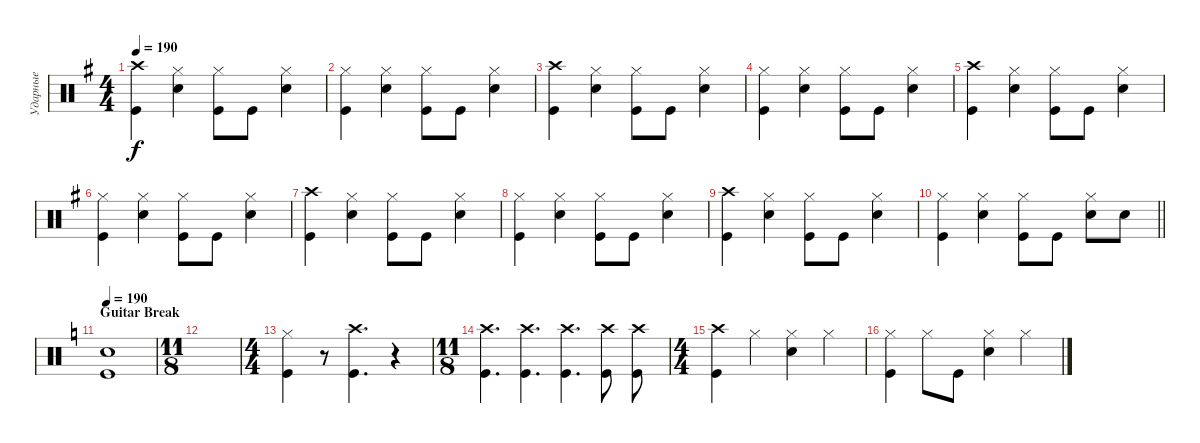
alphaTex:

\track ("Ударные" "Ударные") {instrument percussion}
\staff {score}
\articulation defaults
\ts (4 4)
\tempo 190
\clef neutral
\ks eminor
("Kick (hit)" "Crash high (hit)").4{dy f} ("Hi-Hat (closed)" "Snare (hit) 2").4 ("Kick (hit)" "Hi-Hat (closed)").8 "Kick (hit)".8 ("Snare (hit) 2" "Hi-Hat (closed)").4 |
("Kick (hit)" "Hi-Hat (closed)").4 ("Snare (hit) 2" "Hi-Hat (closed)").4 ("Kick (hit)" "Hi-Hat (closed)").8 "Kick (hit)".8 ("Snare (hit) 2" "Hi-Hat (closed)").4 |
("Kick (hit)" "Crash high (hit)").4 ("Hi-Hat (closed)" "Snare (hit) 2").4 ("Kick (hit)" "Hi-Hat (closed)").8 "Kick (hit)".8 ("Snare (hit) 2" "Hi-Hat (closed)").4 |
("Kick (hit)" "Hi-Hat (closed)").4 ("Snare (hit) 2" "Hi-Hat (closed)").4 ("Kick (hit)" "Hi-Hat (closed)").8 "Kick (hit)".8 ("Snare (hit) 2" "Hi-Hat (closed)").4 |
("Kick (hit)" "Crash high (hit)").4 ("Hi-Hat (closed)" "Snare (hit) 2").4 ("Kick (hit)" "Hi-Hat (closed)").8 "Kick (hit)".8 ("Snare (hit) 2" "Hi-Hat (closed)").4 |
("Kick (hit)" "Hi-Hat (closed)").4 ("Snare (hit) 2" "Hi-Hat (closed)").4 ("Kick (hit)" "Hi-Hat (closed)").8 "Kick (hit)".8 ("Snare (hit) 2" "Hi-Hat (closed)").4 |
("Kick (hit)" "Crash high (hit)").4 ("Hi-Hat (closed)" "Snare (hit) 2").4 ("Kick (hit)" "Hi-Hat (closed)").8 "Kick (hit)".8 ("Snare (hit) 2" "Hi-Hat (closed)").4 |
("Kick (hit)" "Hi-Hat (closed)").4 ("Snare (hit) 2" "Hi-Hat (closed)").4 ("Kick (hit)" "Hi-Hat (closed)").8 "Kick (hit)".8 ("Snare (hit) 2" "Hi-Hat (closed)").4 |
("Kick (hit)" "Crash high (hit)").4 ("Hi-Hat (closed)" "Snare (hit) 2").4 ("Kick (hit)" "Hi-Hat (closed)").8 "Kick (hit)".8 ("Snare (hit) 2" "Hi-Hat (closed)").4 |
\barLineRight lightlight
("Kick (hit)" "Hi-Hat (closed)").4 ("Snare (hit) 2" "Hi-Hat (closed)").4 ("Kick (hit)" "Hi-Hat (closed)").8 "Kick (hit)".8 ("Snare (hit) 2" "Hi-Hat (closed)").8 "Snare (hit) 2".8 |
\section ("" "Guitar Break")
\tempo 190
\ks aminor
("Snare (hit) 2" "Kick (hit)").1 |
\ts (11 8)
|
\ts (4 4)
("Kick (hit)" "Hi-Hat (closed)").4 r.8 ("Kick (hit)" "Crash high (hit)").4{d} r.4 |
\ts (11 8)
("Kick (hit)" "Crash high (hit)").4{d} ("Kick (hit)" "Crash high (hit)").4{d} ("Kick (hit)" "Crash high (hit)").4{d} ("Kick (hit)" "Crash high (hit)").8 ("Kick (hit)" "Crash high (hit)").8 |
\ts (4 4)
("Kick (hit)" "Crash high (hit)").4 "Hi-Hat (closed)".4 ("Snare (hit) 2" "Hi-Hat (closed)").4 "Hi-Hat (closed)".4 |
("Kick (hit)" "Hi-Hat (closed)").4 "Hi-Hat (closed)".8 "Kick (hit)".8 ("Snare (hit) 2" "Hi-Hat (closed)").4 "Hi-Hat (closed)".4
